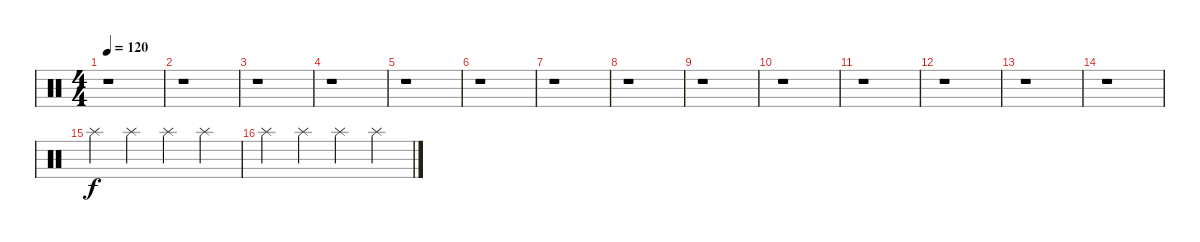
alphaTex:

\track "" {instrument percussion}
\staff {score}
\articulation defaults
\ts (4 4)
\tempo 120
\clef neutral
\ks c
r.1{dy f} |
r.1 |
r.1 |
r.1 |
r.1 |
r.1 |
r.1 |
r.1 |
r.1 |
r.1 |
r.1 |
r.1 |
r.1 |
r.1 |
"Splash (hit)".4 "Splash (hit)".4 "Splash (hit)".4 "Splash (hit)".4 |
"Splash (hit)".4 "Splash (hit)".4 "Splash (hit)".4 "Splash (hit)".4
